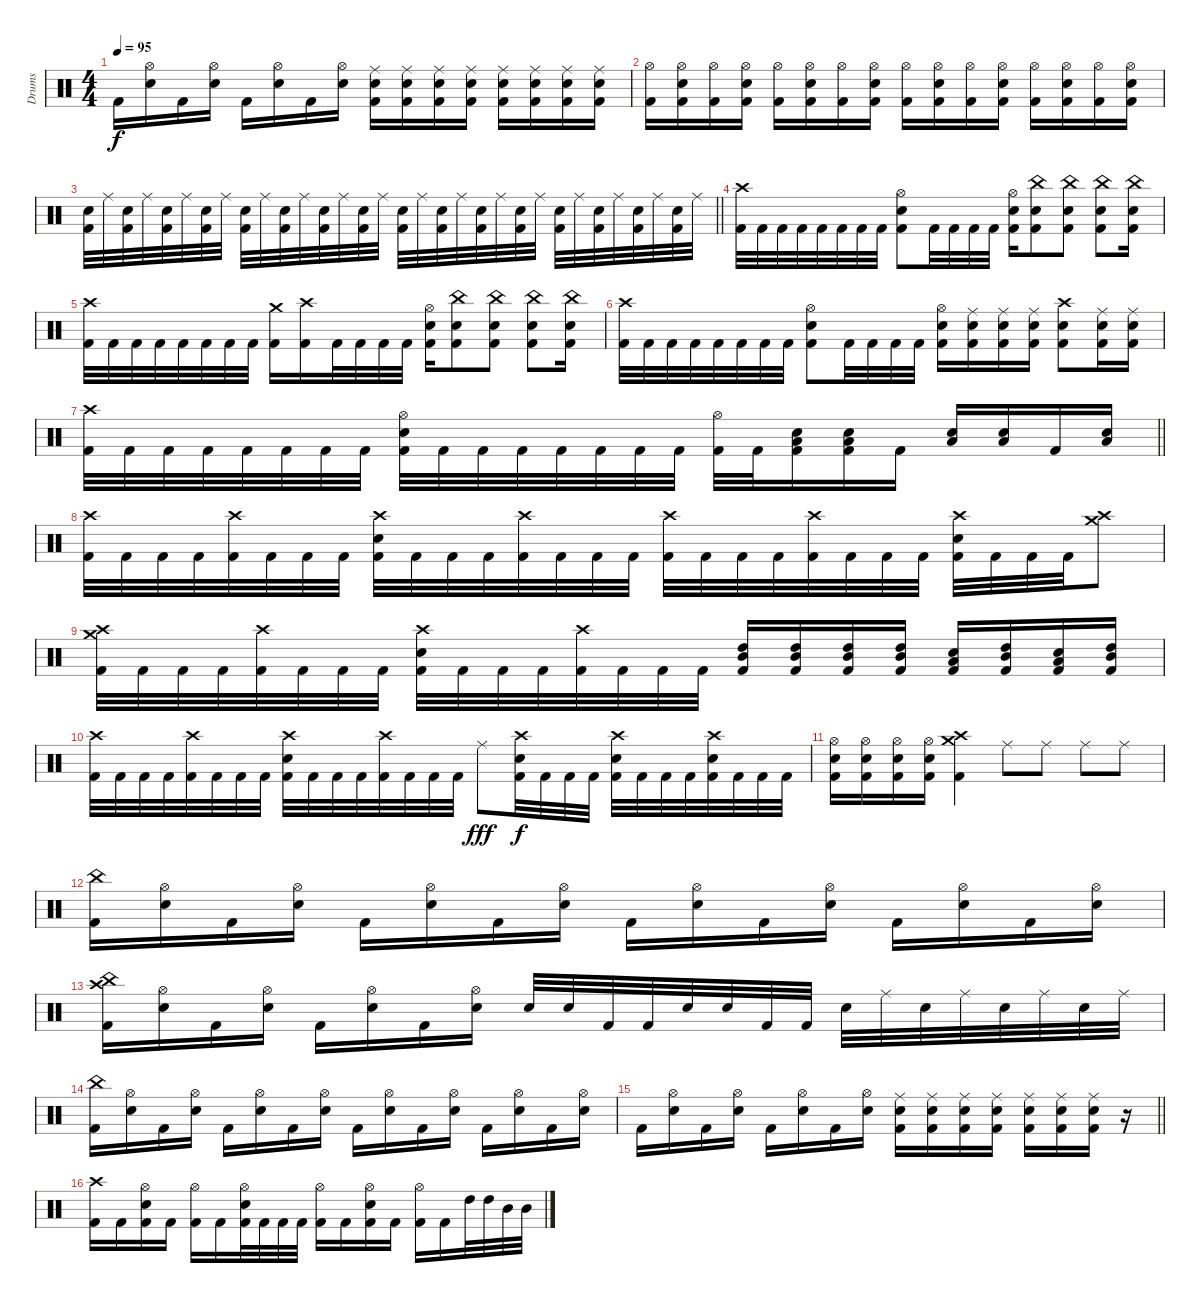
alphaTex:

\track ("Drums" "Drums") {instrument percussion}
\staff {score}
\articulation defaults
\ts (4 4)
\tempo 95
\clef neutral
\ks c "Kick (hit) 2".16{dy f}
("Electric Snare (hit)" "Hi-Hat (open)").16 "Kick (hit) 2".16 ("Electric Snare (hit)" "Hi-Hat (open)").16 "Kick (hit) 2".16 ("Electric Snare (hit)" "Hi-Hat (open)").16 "Kick (hit) 2".16 ("Electric Snare (hit)" "Hi-Hat (open)").16 ("Electric Snare (hit)" "Ride (middle)" "Kick (hit) 2").16 ("Electric Snare (hit)" "Ride (middle)" "Kick (hit) 2").16 ("Electric Snare (hit)" "Ride (middle)" "Kick (hit) 2").16 ("Electric Snare (hit)" "Ride (middle)" "Kick (hit) 2").16 ("Electric Snare (hit)" "Ride (middle)" "Kick (hit) 2").16 ("Electric Snare (hit)" "Ride (middle)" "Kick (hit) 2").16 ("Electric Snare (hit)" "Ride (middle)" "Kick (hit) 2").16 ("Electric Snare (hit)" "Ride (middle)" "Kick (hit) 2").16 |
("Hi-Hat (open)" "Kick (hit) 2").16 ("Electric Snare (hit)" "Hi-Hat (open)" "Kick (hit) 2").16 ("Hi-Hat (open)" "Kick (hit) 2").16 ("Electric Snare (hit)" "Hi-Hat (open)" "Kick (hit) 2").16 ("Hi-Hat (open)" "Kick (hit) 2").16 ("Electric Snare (hit)" "Hi-Hat (open)" "Kick (hit) 2").16 ("Hi-Hat (open)" "Kick (hit) 2").16 ("Electric Snare (hit)" "Hi-Hat (open)" "Kick (hit) 2").16 ("Hi-Hat (open)" "Kick (hit) 2").16 ("Electric Snare (hit)" "Hi-Hat (open)" "Kick (hit) 2").16 ("Hi-Hat (open)" "Kick (hit) 2").16 ("Electric Snare (hit)" "Hi-Hat (open)" "Kick (hit) 2").16 ("Hi-Hat (open)" "Kick (hit) 2").16 ("Electric Snare (hit)" "Hi-Hat (open)" "Kick (hit) 2").16 ("Hi-Hat (open)" "Kick (hit) 2").16 ("Electric Snare (hit)" "Hi-Hat (open)" "Kick (hit) 2").16 |
\barLineRight lightlight
("Electric Snare (hit)" "Kick (hit) 2").32 "Ride (middle)".32 ("Electric Snare (hit)" "Kick (hit) 2").32 "Ride (middle)".32 ("Electric Snare (hit)" "Kick (hit) 2").32 "Ride (middle)".32 ("Electric Snare (hit)" "Kick (hit) 2").32 "Ride (middle)".32 ("Electric Snare (hit)" "Kick (hit) 2").32 "Ride (middle)".32 ("Electric Snare (hit)" "Kick (hit) 2").32 "Ride (middle)".32 ("Electric Snare (hit)" "Kick (hit) 2").32 "Ride (middle)".32 ("Electric Snare (hit)" "Kick (hit) 2").32 "Ride (middle)".32 ("Electric Snare (hit)" "Kick (hit) 2").32 "Ride (middle)".32 ("Electric Snare (hit)" "Kick (hit) 2").32 "Ride (middle)".32 ("Electric Snare (hit)" "Kick (hit) 2").32 "Ride (middle)".32 ("Electric Snare (hit)" "Kick (hit) 2").32 "Ride (middle)".32 ("Electric Snare (hit)" "Kick (hit) 2").32 "Ride (middle)".32 ("Electric Snare (hit)" "Kick (hit) 2").32 "Ride (middle)".32 ("Electric Snare (hit)" "Kick (hit) 2").32 "Ride (middle)".32 ("Electric Snare (hit)" "Kick (hit) 2").32 "Ride (middle)".32 |
("Crash high (hit)" "Kick (hit) 2").32 "Kick (hit) 2".32 "Kick (hit) 2".32 "Kick (hit) 2".32 "Kick (hit) 2".32 "Kick (hit) 2".32 "Kick (hit) 2".32 "Kick (hit) 2".32 ("Hi-Hat (open)" "Electric Snare (hit)" "Kick (hit) 2").8 "Kick (hit) 2".32 "Kick (hit) 2".32 "Kick (hit) 2".32 "Kick (hit) 2".32 ("Hi-Hat (open)" "Electric Snare (hit)" "Kick (hit) 2").16 ("China (hit)" "Electric Snare (hit)" "Kick (hit) 2").8 ("China (hit)" "Electric Snare (hit)" "Kick (hit) 2").8 ("China (hit)" "Electric Snare (hit)" "Kick (hit) 2").8 ("Electric Snare (hit)" "China (hit)" "Kick (hit) 2").16 |
("Crash high (hit)" "Kick (hit) 2").32 "Kick (hit) 2".32 "Kick (hit) 2".32 "Kick (hit) 2".32 "Kick (hit) 2".32 "Kick (hit) 2".32 "Kick (hit) 2".32 "Kick (hit) 2".32 ("Crash medium (hit)" "Kick (hit) 2").16 ("Crash high (hit)" "Kick (hit) 2").16 "Kick (hit) 2".32 "Kick (hit) 2".32 "Kick (hit) 2".32 "Kick (hit) 2".32 ("Hi-Hat (open)" "Electric Snare (hit)" "Kick (hit) 2").16 ("China (hit)" "Electric Snare (hit)" "Kick (hit) 2").8 ("China (hit)" "Electric Snare (hit)" "Kick (hit) 2").8 ("China (hit)" "Electric Snare (hit)" "Kick (hit) 2").8 ("Electric Snare (hit)" "China (hit)" "Kick (hit) 2").16 |
("Crash high (hit)" "Kick (hit) 2").32 "Kick (hit) 2".32 "Kick (hit) 2".32 "Kick (hit) 2".32 "Kick (hit) 2".32 "Kick (hit) 2".32 "Kick (hit) 2".32 "Kick (hit) 2".32 ("Hi-Hat (open)" "Electric Snare (hit)" "Kick (hit) 2").8 "Kick (hit) 2".32 "Kick (hit) 2".32 "Kick (hit) 2".32 "Kick (hit) 2".32 ("Hi-Hat (open)" "Electric Snare (hit)" "Kick (hit) 2").16 ("Ride (middle)" "Electric Snare (hit)" "Kick (hit) 2").16 ("Ride (middle)" "Electric Snare (hit)" "Kick (hit) 2").16 ("Ride (middle)" "Electric Snare (hit)" "Kick (hit) 2").16 ("Crash high (hit)" "Electric Snare (hit)" "Kick (hit) 2").8 ("Ride (middle)" "Electric Snare (hit)" "Kick (hit) 2").16 ("Ride (middle)" "Electric Snare (hit)" "Kick (hit) 2").16 |
\barLineRight lightlight
("Crash high (hit)" "Kick (hit) 2").32 "Kick (hit) 2".32 "Kick (hit) 2".32 "Kick (hit) 2".32 "Kick (hit) 2".32 "Kick (hit) 2".32 "Kick (hit) 2".32 "Kick (hit) 2".32 ("Hi-Hat (open)" "Electric Snare (hit)" "Kick (hit) 2").32 "Kick (hit) 2".32 "Kick (hit) 2".32 "Kick (hit) 2".32 "Kick (hit) 2".32 "Kick (hit) 2".32 "Kick (hit) 2".32 "Kick (hit) 2".32 ("Hi-Hat (open)" "Kick (hit) 2").32 "Kick (hit) 2".32 ("Low Floor Tom (hit)" "Electric Snare (hit)" "Kick (hit) 2").16 ("Low Floor Tom (hit)" "Electric Snare (hit)" "Kick (hit) 2").16 "Kick (hit) 2".16 ("Low Floor Tom (hit)" "Electric Snare (hit)").16 ("Low Floor Tom (hit)" "Electric Snare (hit)").16 "Kick (hit) 2".16 ("Low Floor Tom (hit)" "Electric Snare (hit)").16 |
("Crash high (hit)" "Kick (hit) 2").32 "Kick (hit) 2".32 "Kick (hit) 2".32 "Kick (hit) 2".32 ("Crash high (hit)" "Kick (hit) 2").32 "Kick (hit) 2".32 "Kick (hit) 2".32 "Kick (hit) 2".32 ("Crash high (hit)" "Electric Snare (hit)" "Kick (hit) 2").32 "Kick (hit) 2".32 "Kick (hit) 2".32 "Kick (hit) 2".32 ("Crash high (hit)" "Kick (hit) 2").32 "Kick (hit) 2".32 "Kick (hit) 2".32 "Kick (hit) 2".32 ("Crash high (hit)" "Kick (hit) 2").32 "Kick (hit) 2".32 "Kick (hit) 2".32 "Kick (hit) 2".32 ("Crash high (hit)" "Kick (hit) 2").32 "Kick (hit) 2".32 "Kick (hit) 2".32 "Kick (hit) 2".32 ("Crash high (hit)" "Electric Snare (hit)" "Kick (hit) 2").32 "Kick (hit) 2".32 "Kick (hit) 2".32 "Kick (hit) 2".32 ("Crash medium (hit)" "Crash high (hit)").8 |
("Crash medium (hit)" "Crash high (hit)" "Kick (hit) 2").32 "Kick (hit) 2".32 "Kick (hit) 2".32 "Kick (hit) 2".32 ("Crash high (hit)" "Kick (hit) 2").32 "Kick (hit) 2".32 "Kick (hit) 2".32 "Kick (hit) 2".32 ("Crash high (hit)" "Electric Snare (hit)" "Kick (hit) 2").32 "Kick (hit) 2".32 "Kick (hit) 2".32 "Kick (hit) 2".32 ("Crash high (hit)" "Kick (hit) 2").32 "Kick (hit) 2".32 "Kick (hit) 2".32 "Kick (hit) 2".32 ("High Tom (hit)" "Mid Tom (hit)" "Kick (hit) 2").16 ("High Tom (hit)" "Mid Tom (hit)" "Kick (hit) 2").16 ("High Tom (hit)" "Mid Tom (hit)" "Kick (hit) 2").16 ("High Tom (hit)" "Mid Tom (hit)" "Kick (hit) 2").16 ("Electric Snare (hit)" "Low Floor Tom (hit)" "Kick (hit) 2").16 ("High Tom (hit)" "Mid Tom (hit)" "Kick (hit) 2").16 ("Electric Snare (hit)" "Low Floor Tom (hit)" "Kick (hit) 2").16 ("High Tom (hit)" "Mid Tom (hit)" "Kick (hit) 2").16 |
("Crash high (hit)" "Kick (hit) 2").32 "Kick (hit) 2".32 "Kick (hit) 2".32 "Kick (hit) 2".32 ("Crash high (hit)" "Kick (hit) 2").32 "Kick (hit) 2".32 "Kick (hit) 2".32 "Kick (hit) 2".32 ("Crash high (hit)" "Electric Snare (hit)" "Kick (hit) 2").32 "Kick (hit) 2".32 "Kick (hit) 2".32 "Kick (hit) 2".32 ("Crash high (hit)" "Kick (hit) 2").32 "Kick (hit) 2".32 "Kick (hit) 2".32 "Kick (hit) 2".32 "Ride (middle)".8{dy fff} ("Crash high (hit)" "Electric Snare (hit)" "Kick (hit) 2").32{dy f} "Kick (hit) 2".32 "Kick (hit) 2".32 "Kick (hit) 2".32 ("Electric Snare (hit)" "Crash high (hit)" "Kick (hit) 2").32 "Kick (hit) 2".32 "Kick (hit) 2".32 "Kick (hit) 2".32 ("Electric Snare (hit)" "Crash high (hit)" "Kick (hit) 2").32 "Kick (hit) 2".32 "Kick (hit) 2".32 "Kick (hit) 2".32 |
("Kick (hit) 2" "Electric Snare (hit)" "Hi-Hat (open)").16 ("Kick (hit) 2" "Electric Snare (hit)" "Hi-Hat (open)").16 ("Kick (hit) 2" "Electric Snare (hit)" "Hi-Hat (open)").16 ("Kick (hit) 2" "Electric Snare (hit)" "Hi-Hat (open)").16 ("Kick (hit) 2" "Crash medium (hit)" "Crash high (hit)").4 "Ride (middle)".8 "Ride (middle)".8 "Ride (middle)".8 "Ride (middle)".8 |
("China (hit)" "Kick (hit) 2").16 ("Electric Snare (hit)" "Hi-Hat (open)").16 "Kick (hit) 2".16 ("Electric Snare (hit)" "Hi-Hat (open)").16 "Kick (hit) 2".16 ("Electric Snare (hit)" "Hi-Hat (open)").16 "Kick (hit) 2".16 ("Electric Snare (hit)" "Hi-Hat (open)").16 "Kick (hit) 2".16 ("Electric Snare (hit)" "Hi-Hat (open)").16 "Kick (hit) 2".16 ("Electric Snare (hit)" "Hi-Hat (open)").16 "Kick (hit) 2".16 ("Electric Snare (hit)" "Hi-Hat (open)").16 "Kick (hit) 2".16 ("Electric Snare (hit)" "Hi-Hat (open)").16 |
("Crash high (hit)" "China (hit)" "Kick (hit) 2").16 ("Electric Snare (hit)" "Hi-Hat (open)").16 "Kick (hit) 2".16 ("Electric Snare (hit)" "Hi-Hat (open)").16 "Kick (hit) 2".16 ("Electric Snare (hit)" "Hi-Hat (open)").16 "Kick (hit) 2".16 ("Electric Snare (hit)" "Hi-Hat (open)").16 "Electric Snare (hit)".32 "Electric Snare (hit)".32 "Kick (hit) 2".32 "Kick (hit) 2".32 "Electric Snare (hit)".32 "Electric Snare (hit)".32 "Kick (hit) 2".32 "Kick (hit) 2".32 "Electric Snare (hit)".32 "Ride (middle)".32 "Electric Snare (hit)".32 "Ride (middle)".32 "Electric Snare (hit)".32 "Ride (middle)".32 "Electric Snare (hit)".32 "Ride (middle)".32 |
("China (hit)" "Kick (hit) 2").16 ("Electric Snare (hit)" "Hi-Hat (open)").16 "Kick (hit) 2".16 ("Electric Snare (hit)" "Hi-Hat (open)").16 "Kick (hit) 2".16 ("Electric Snare (hit)" "Hi-Hat (open)").16 "Kick (hit) 2".16 ("Electric Snare (hit)" "Hi-Hat (open)").16 "Kick (hit) 2".16 ("Electric Snare (hit)" "Hi-Hat (open)").16 "Kick (hit) 2".16 ("Electric Snare (hit)" "Hi-Hat (open)").16 "Kick (hit) 2".16 ("Electric Snare (hit)" "Hi-Hat (open)").16 "Kick (hit) 2".16 ("Electric Snare (hit)" "Hi-Hat (open)").16 |
\barLineRight lightlight "Kick (hit) 2".16
("Electric Snare (hit)" "Hi-Hat (open)").16 "Kick (hit) 2".16 ("Electric Snare (hit)" "Hi-Hat (open)").16 "Kick (hit) 2".16 ("Electric Snare (hit)" "Hi-Hat (open)").16 "Kick (hit) 2".16 ("Electric Snare (hit)" "Hi-Hat (open)").16 ("Electric Snare (hit)" "Ride (middle)" "Kick (hit) 2").16 ("Electric Snare (hit)" "Ride (middle)" "Kick (hit) 2").16 ("Electric Snare (hit)" "Ride (middle)" "Kick (hit) 2").16 ("Electric Snare (hit)" "Ride (middle)" "Kick (hit) 2").16 ("Electric Snare (hit)" "Ride (middle)" "Kick (hit) 2").16 ("Electric Snare (hit)" "Ride (middle)" "Kick (hit) 2").16 ("Electric Snare (hit)" "Ride (middle)" "Kick (hit) 2").16 r.16 |
("Crash high (hit)" "Kick (hit) 2").16 "Kick (hit) 2".16 ("Electric Snare (hit)" "Hi-Hat (open)" "Kick (hit) 2").16 "Kick (hit) 2".16 ("Hi-Hat (open)" "Kick (hit) 2").16 "Kick (hit) 2".16 ("Electric Snare (hit)" "Hi-Hat (open)" "Kick (hit) 2").32 "Kick (hit) 2".32 "Kick (hit) 2".32 "Kick (hit) 2".32 ("Hi-Hat (open)" "Kick (hit) 2").16 "Kick (hit) 2".16 ("Electric Snare (hit)" "Hi-Hat (open)" "Kick (hit) 2").16 "Kick (hit) 2".16 ("Hi-Hat (open)" "Kick (hit) 2").16 "Kick (hit) 2".16 "High Tom (hit)".32 "High Tom (hit)".32 "Mid Tom (hit)".32 "Mid Tom (hit)".32
